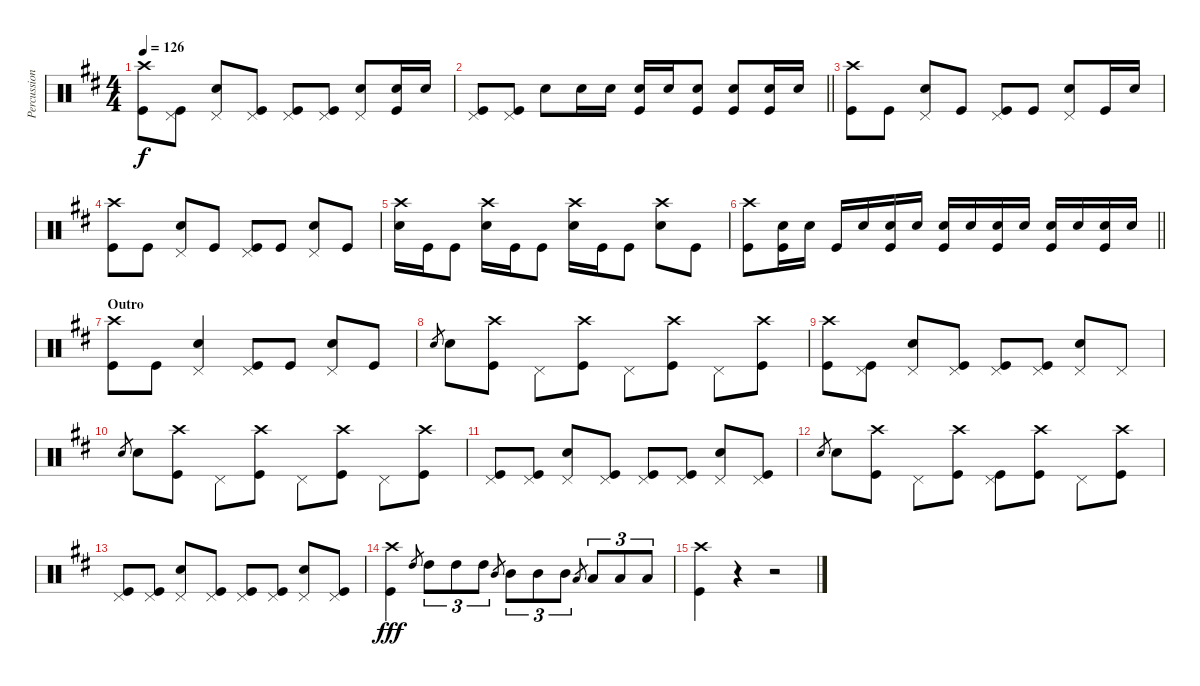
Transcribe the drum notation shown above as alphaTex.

\track ("Percussion" "Percussion") {instrument percussion}
\staff {score}
\articulation defaults
\ts (4 4)
\tempo 126
\clef neutral
\ks d
("Crash high (hit)" "Kick (hit)").8{dy f} ("Pedal Hi-Hat (hit)" "Kick (hit)").8 ("Pedal Hi-Hat (hit)" "Snare (hit) 2").8 ("Pedal Hi-Hat (hit)" "Kick (hit)").8 ("Pedal Hi-Hat (hit)" "Kick (hit)").8 ("Pedal Hi-Hat (hit)" "Kick (hit)").8 ("Pedal Hi-Hat (hit)" "Snare (hit) 2").8 ("Snare (hit) 2" "Kick (hit)").16 "Snare (hit) 2".16 |
\barLineRight lightlight
("Pedal Hi-Hat (hit)" "Kick (hit)").8 ("Pedal Hi-Hat (hit)" "Kick (hit)").8 "Snare (hit) 2".8 "Snare (hit) 2".16 "Snare (hit) 2".16 ("Snare (hit) 2" "Kick (hit)").16 "Snare (hit) 2".16 ("Snare (hit) 2" "Kick (hit)").8 ("Snare (hit) 2" "Kick (hit)").8 ("Snare (hit) 2" "Kick (hit)").16 "Snare (hit) 2".16 |
("Crash high (hit)" "Kick (hit)").8 "Kick (hit)".8 ("Pedal Hi-Hat (hit)" "Snare (hit) 2").8 "Kick (hit)".8 ("Pedal Hi-Hat (hit)" "Kick (hit)").8 "Kick (hit)".8 ("Pedal Hi-Hat (hit)" "Snare (hit) 2").8 "Kick (hit)".16 "Snare (hit) 2".16 |
("Crash high (hit)" "Kick (hit)").8 "Kick (hit)".8 ("Pedal Hi-Hat (hit)" "Snare (hit) 2").8 "Kick (hit)".8 ("Pedal Hi-Hat (hit)" "Kick (hit)").8 "Kick (hit)".8 ("Pedal Hi-Hat (hit)" "Snare (hit) 2").8 "Kick (hit)".8 |
("Crash high (hit)" "Snare (hit) 2").16 "Kick (hit)".16 "Kick (hit)".8 ("Crash high (hit)" "Snare (hit) 2").16 "Kick (hit)".16 "Kick (hit)".8 ("Crash high (hit)" "Snare (hit) 2").16 "Kick (hit)".16 "Kick (hit)".8 ("Crash high (hit)" "Snare (hit) 2").8 "Kick (hit)".8 |
\barLineRight lightlight
("Crash high (hit)" "Kick (hit)").8 ("Snare (hit) 2" "Kick (hit)").16 "Snare (hit) 2".16 "Kick (hit)".16 "Snare (hit) 2".16 ("Snare (hit) 2" "Kick (hit)").16 "Snare (hit) 2".16 ("Snare (hit) 2" "Kick (hit)").16 "Snare (hit) 2".16 ("Snare (hit) 2" "Kick (hit)").16 "Snare (hit) 2".16 ("Snare (hit) 2" "Kick (hit)").16 "Snare (hit) 2".16 ("Snare (hit) 2" "Kick (hit)").16 "Snare (hit) 2".16 |
\section ("" "Outro")
("Crash high (hit)" "Kick (hit)").8 "Kick (hit)".8 ("Pedal Hi-Hat (hit)" "Snare (hit) 2").4 ("Pedal Hi-Hat (hit)" "Kick (hit)").8 "Kick (hit)".8 ("Pedal Hi-Hat (hit)" "Snare (hit) 2").8 "Kick (hit)".8 |
"Snare (hit) 2".8{gr} "Snare (hit) 2".8 ("Crash high (hit)" "Kick (hit)").8 "Pedal Hi-Hat (hit)".8 ("Crash high (hit)" "Kick (hit)").8 "Pedal Hi-Hat (hit)".8 ("Crash high (hit)" "Kick (hit)").8 "Pedal Hi-Hat (hit)".8 ("Crash high (hit)" "Kick (hit)").8 |
("Crash high (hit)" "Kick (hit)").8 ("Pedal Hi-Hat (hit)" "Kick (hit)").8 ("Pedal Hi-Hat (hit)" "Snare (hit) 2").8 ("Pedal Hi-Hat (hit)" "Kick (hit)").8 ("Pedal Hi-Hat (hit)" "Kick (hit)").8 ("Pedal Hi-Hat (hit)" "Kick (hit)").8 ("Pedal Hi-Hat (hit)" "Snare (hit) 2").8 "Pedal Hi-Hat (hit)".8 |
"Snare (hit) 2".8{gr} "Snare (hit) 2".8 ("Crash high (hit)" "Kick (hit)").8 "Pedal Hi-Hat (hit)".8 ("Crash high (hit)" "Kick (hit)").8 "Pedal Hi-Hat (hit)".8 ("Crash high (hit)" "Kick (hit)").8 "Pedal Hi-Hat (hit)".8 ("Crash high (hit)" "Kick (hit)").8 |
("Pedal Hi-Hat (hit)" "Kick (hit)").8 ("Pedal Hi-Hat (hit)" "Kick (hit)").8 ("Pedal Hi-Hat (hit)" "Snare (hit) 2").8 ("Pedal Hi-Hat (hit)" "Kick (hit)").8 ("Pedal Hi-Hat (hit)" "Kick (hit)").8 ("Pedal Hi-Hat (hit)" "Kick (hit)").8 ("Pedal Hi-Hat (hit)" "Snare (hit) 2").8 ("Pedal Hi-Hat (hit)" "Kick (hit)").8 |
"Snare (hit) 2".8{gr} "Snare (hit) 2".8 ("Crash high (hit)" "Kick (hit)").8 "Pedal Hi-Hat (hit)".8 ("Crash high (hit)" "Kick (hit)").8 ("Pedal Hi-Hat (hit)" "Kick (hit)").8 ("Crash high (hit)" "Kick (hit)").8 "Pedal Hi-Hat (hit)".8 ("Crash high (hit)" "Kick (hit)").8 |
("Pedal Hi-Hat (hit)" "Kick (hit)").8 ("Pedal Hi-Hat (hit)" "Kick (hit)").8 ("Pedal Hi-Hat (hit)" "Snare (hit) 2").8 ("Pedal Hi-Hat (hit)" "Kick (hit)").8 ("Pedal Hi-Hat (hit)" "Kick (hit)").8 ("Pedal Hi-Hat (hit)" "Kick (hit)").8 ("Pedal Hi-Hat (hit)" "Snare (hit) 2").8 ("Pedal Hi-Hat (hit)" "Kick (hit)").8 |
("Crash high (hit)" "Kick (hit)").4{dy fff} "High Tom (hit)".8{gr} "High Tom (hit)".8{tu (3 2)} "High Tom (hit)".8{tu (3 2)} "High Tom (hit)".8{tu (3 2)} "Mid Tom (hit)".8{gr} "Mid Tom (hit)".8{tu (3 2)} "Mid Tom (hit)".8{tu (3 2)} "Mid Tom (hit)".8{tu (3 2)} "Low Tom (hit)".8{gr} "Low Tom (hit)".8{tu (3 2)} "Low Tom (hit)".8{tu (3 2)} "Low Tom (hit)".8{tu (3 2)} |
("Crash high (hit)" "Kick (hit)").4 r.4 r.2
